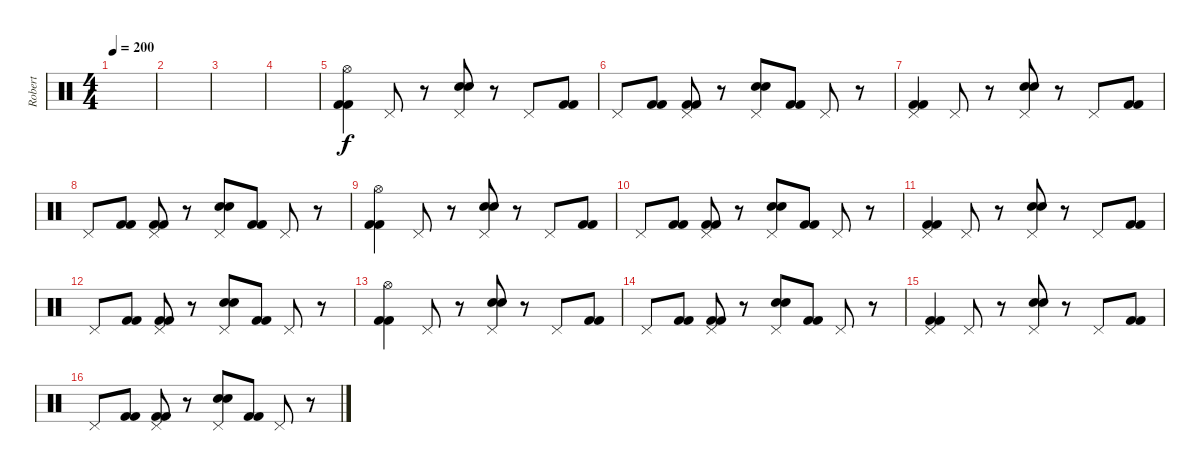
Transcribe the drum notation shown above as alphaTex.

\track ("Robert" "Robert") {instrument percussion}
\staff {score}
\articulation defaults
\ts (4 4)
\tempo 200
\clef neutral
\ks c
|
|
|
|
("Hi-Hat (open)" "Kick (hit) 2" "Kick (hit) 2").4 "Pedal Hi-Hat (hit)".8 r.8 ("Pedal Hi-Hat (hit)" "Electric Snare (hit)" "Electric Snare (hit)").8 r.8 "Pedal Hi-Hat (hit)".8 ("Kick (hit) 2" "Kick (hit) 2").8 |
"Pedal Hi-Hat (hit)".8 ("Kick (hit) 2" "Kick (hit) 2").8 ("Pedal Hi-Hat (hit)" "Kick (hit) 2" "Kick (hit) 2").8 r.8 ("Pedal Hi-Hat (hit)" "Electric Snare (hit)" "Electric Snare (hit)").8 ("Kick (hit) 2" "Kick (hit) 2").8 "Pedal Hi-Hat (hit)".8 r.8 |
("Pedal Hi-Hat (hit)" "Kick (hit) 2" "Kick (hit) 2").4 "Pedal Hi-Hat (hit)".8 r.8 ("Pedal Hi-Hat (hit)" "Electric Snare (hit)" "Electric Snare (hit)").8 r.8 "Pedal Hi-Hat (hit)".8 ("Kick (hit) 2" "Kick (hit) 2").8 |
"Pedal Hi-Hat (hit)".8 ("Kick (hit) 2" "Kick (hit) 2").8 ("Pedal Hi-Hat (hit)" "Kick (hit) 2" "Kick (hit) 2").8 r.8 ("Pedal Hi-Hat (hit)" "Electric Snare (hit)" "Electric Snare (hit)").8 ("Kick (hit) 2" "Kick (hit) 2").8 "Pedal Hi-Hat (hit)".8 r.8 |
("Hi-Hat (open)" "Kick (hit) 2" "Kick (hit) 2").4 "Pedal Hi-Hat (hit)".8 r.8 ("Pedal Hi-Hat (hit)" "Electric Snare (hit)" "Electric Snare (hit)").8 r.8 "Pedal Hi-Hat (hit)".8 ("Kick (hit) 2" "Kick (hit) 2").8 |
"Pedal Hi-Hat (hit)".8 ("Kick (hit) 2" "Kick (hit) 2").8 ("Pedal Hi-Hat (hit)" "Kick (hit) 2" "Kick (hit) 2").8 r.8 ("Pedal Hi-Hat (hit)" "Electric Snare (hit)" "Electric Snare (hit)").8 ("Kick (hit) 2" "Kick (hit) 2").8 "Pedal Hi-Hat (hit)".8 r.8 |
("Pedal Hi-Hat (hit)" "Kick (hit) 2" "Kick (hit) 2").4 "Pedal Hi-Hat (hit)".8 r.8 ("Pedal Hi-Hat (hit)" "Electric Snare (hit)" "Electric Snare (hit)").8 r.8 "Pedal Hi-Hat (hit)".8 ("Kick (hit) 2" "Kick (hit) 2").8 |
"Pedal Hi-Hat (hit)".8 ("Kick (hit) 2" "Kick (hit) 2").8 ("Pedal Hi-Hat (hit)" "Kick (hit) 2" "Kick (hit) 2").8 r.8 ("Pedal Hi-Hat (hit)" "Electric Snare (hit)" "Electric Snare (hit)").8 ("Kick (hit) 2" "Kick (hit) 2").8 "Pedal Hi-Hat (hit)".8 r.8 |
("Hi-Hat (open)" "Kick (hit) 2" "Kick (hit) 2").4 "Pedal Hi-Hat (hit)".8 r.8 ("Pedal Hi-Hat (hit)" "Electric Snare (hit)" "Electric Snare (hit)").8 r.8 "Pedal Hi-Hat (hit)".8 ("Kick (hit) 2" "Kick (hit) 2").8 |
"Pedal Hi-Hat (hit)".8 ("Kick (hit) 2" "Kick (hit) 2").8 ("Pedal Hi-Hat (hit)" "Kick (hit) 2" "Kick (hit) 2").8 r.8 ("Pedal Hi-Hat (hit)" "Electric Snare (hit)" "Electric Snare (hit)").8 ("Kick (hit) 2" "Kick (hit) 2").8 "Pedal Hi-Hat (hit)".8 r.8 |
("Pedal Hi-Hat (hit)" "Kick (hit) 2" "Kick (hit) 2").4 "Pedal Hi-Hat (hit)".8 r.8 ("Pedal Hi-Hat (hit)" "Electric Snare (hit)" "Electric Snare (hit)").8 r.8 "Pedal Hi-Hat (hit)".8 ("Kick (hit) 2" "Kick (hit) 2").8 |
"Pedal Hi-Hat (hit)".8 ("Kick (hit) 2" "Kick (hit) 2").8 ("Pedal Hi-Hat (hit)" "Kick (hit) 2" "Kick (hit) 2").8 r.8 ("Pedal Hi-Hat (hit)" "Electric Snare (hit)" "Electric Snare (hit)").8 ("Kick (hit) 2" "Kick (hit) 2").8 "Pedal Hi-Hat (hit)".8 r.8
